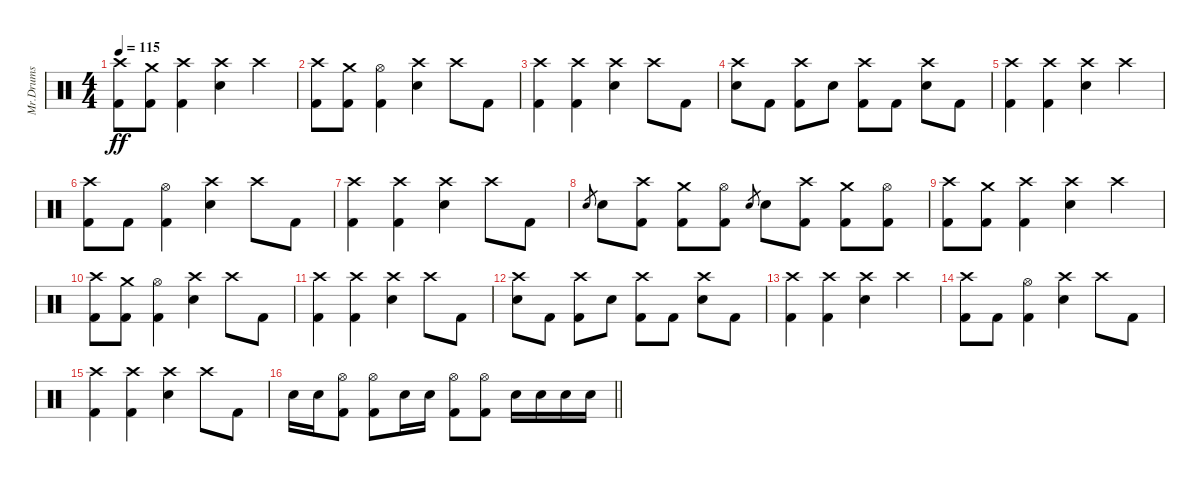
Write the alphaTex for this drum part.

\track ("Mr.Drums" "Mr.Drums") {instrument percussion}
\staff {score}
\articulation defaults
\ts (4 4)
\tempo 115
\clef neutral
\ks c
("Crash high (hit)" "Kick (hit) 2").8{dy ff} ("Crash medium (hit)" "Kick (hit) 2").8 ("Crash high (hit)" "Kick (hit) 2").4 ("Crash high (hit)" "Electric Snare (hit)").4 "Crash high (hit)".4 |
("Crash high (hit)" "Kick (hit) 2").8 ("Crash medium (hit)" "Kick (hit) 2").8 ("Hi-Hat (open)" "Kick (hit) 2").4 ("Crash high (hit)" "Electric Snare (hit)").4 "Crash high (hit)".8 "Kick (hit) 2".8 |
("Crash high (hit)" "Kick (hit) 2").4 ("Crash high (hit)" "Kick (hit) 2").4 ("Crash high (hit)" "Electric Snare (hit)").4 "Crash high (hit)".8 "Kick (hit) 2".8 |
("Crash high (hit)" "Electric Snare (hit)").8 "Kick (hit) 2".8 ("Crash high (hit)" "Kick (hit) 2").8 "Electric Snare (hit)".8 ("Crash high (hit)" "Kick (hit) 2").8 "Kick (hit) 2".8 ("Crash high (hit)" "Electric Snare (hit)").8 "Kick (hit) 2".8 |
("Crash high (hit)" "Kick (hit) 2").4 ("Crash high (hit)" "Kick (hit) 2").4 ("Crash high (hit)" "Electric Snare (hit)").4 "Crash high (hit)".4 |
("Crash high (hit)" "Kick (hit) 2").8 "Kick (hit) 2".8 ("Hi-Hat (open)" "Kick (hit) 2").4 ("Crash high (hit)" "Electric Snare (hit)").4 "Crash high (hit)".8 "Kick (hit) 2".8 |
("Crash high (hit)" "Kick (hit) 2").4 ("Crash high (hit)" "Kick (hit) 2").4 ("Crash high (hit)" "Electric Snare (hit)").4 "Crash high (hit)".8 "Kick (hit) 2".8 |
"Electric Snare (hit)".8{gr} "Electric Snare (hit)".8 ("Crash high (hit)" "Kick (hit) 2").8 ("Crash medium (hit)" "Kick (hit) 2").8 ("Hi-Hat (open)" "Kick (hit) 2").8 "Electric Snare (hit)".8{gr} "Electric Snare (hit)".8 ("Crash high (hit)" "Kick (hit) 2").8 ("Crash medium (hit)" "Kick (hit) 2").8 ("Hi-Hat (open)" "Kick (hit) 2").8 |
("Crash high (hit)" "Kick (hit) 2").8 ("Crash medium (hit)" "Kick (hit) 2").8 ("Crash high (hit)" "Kick (hit) 2").4 ("Crash high (hit)" "Electric Snare (hit)").4 "Crash high (hit)".4 |
("Crash high (hit)" "Kick (hit) 2").8 ("Crash medium (hit)" "Kick (hit) 2").8 ("Hi-Hat (open)" "Kick (hit) 2").4 ("Crash high (hit)" "Electric Snare (hit)").4 "Crash high (hit)".8 "Kick (hit) 2".8 |
("Crash high (hit)" "Kick (hit) 2").4 ("Crash high (hit)" "Kick (hit) 2").4 ("Crash high (hit)" "Electric Snare (hit)").4 "Crash high (hit)".8 "Kick (hit) 2".8 |
("Crash high (hit)" "Electric Snare (hit)").8 "Kick (hit) 2".8 ("Crash high (hit)" "Kick (hit) 2").8 "Electric Snare (hit)".8 ("Crash high (hit)" "Kick (hit) 2").8 "Kick (hit) 2".8 ("Crash high (hit)" "Electric Snare (hit)").8 "Kick (hit) 2".8 |
("Crash high (hit)" "Kick (hit) 2").4 ("Crash high (hit)" "Kick (hit) 2").4 ("Crash high (hit)" "Electric Snare (hit)").4 "Crash high (hit)".4 |
("Crash high (hit)" "Kick (hit) 2").8 "Kick (hit) 2".8 ("Hi-Hat (open)" "Kick (hit) 2").4 ("Crash high (hit)" "Electric Snare (hit)").4 "Crash high (hit)".8 "Kick (hit) 2".8 |
("Crash high (hit)" "Kick (hit) 2").4 ("Crash high (hit)" "Kick (hit) 2").4 ("Crash high (hit)" "Electric Snare (hit)").4 "Crash high (hit)".8 "Kick (hit) 2".8 |
\barLineRight lightlight "Electric Snare (hit)".16 "Electric Snare (hit)".16
("Hi-Hat (open)" "Kick (hit) 2").8 ("Hi-Hat (open)" "Kick (hit) 2").8 "Electric Snare (hit)".16 "Electric Snare (hit)".16 ("Hi-Hat (open)" "Kick (hit) 2").8 ("Hi-Hat (open)" "Kick (hit) 2").8 "Electric Snare (hit)".16 "Electric Snare (hit)".16 "Electric Snare (hit)".16 "Electric Snare (hit)".16
